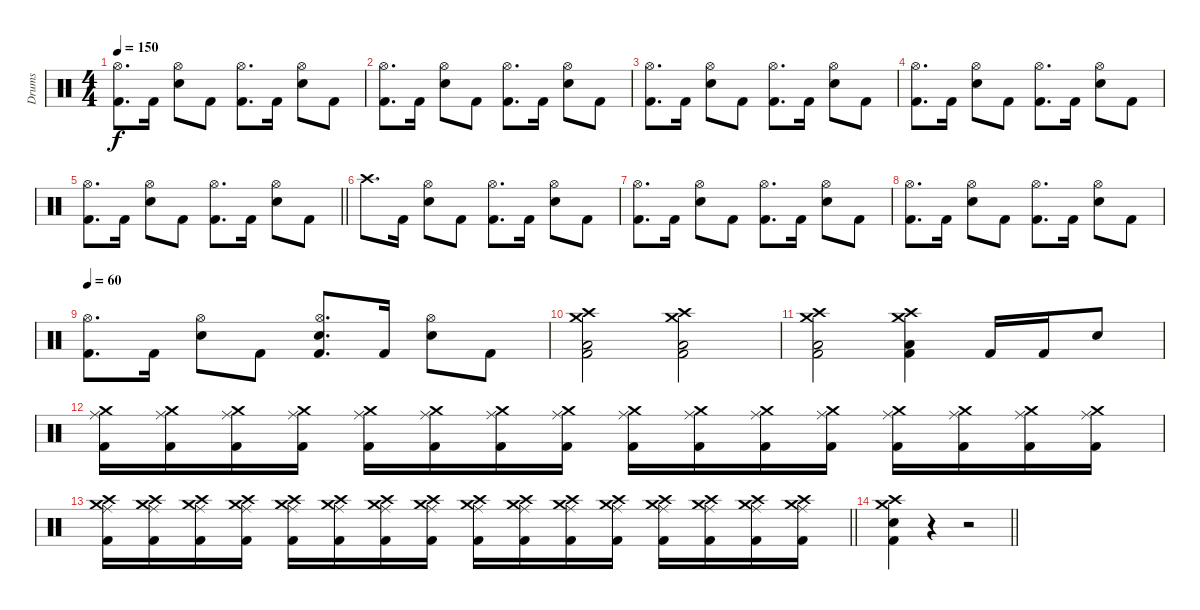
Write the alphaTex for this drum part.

\track ("Drums" "Drums") {instrument percussion}
\staff {score}
\articulation defaults
\ts (4 4)
\tempo 150
\clef neutral
\ks c
("Kick (hit) 2" "Hi-Hat (open)").8{d dy f} "Kick (hit) 2".16 ("Snare (hit) 2" "Hi-Hat (open)").8 "Kick (hit) 2".8 ("Kick (hit) 2" "Hi-Hat (open)").8{d} "Kick (hit) 2".16 ("Snare (hit) 2" "Hi-Hat (open)").8 "Kick (hit) 2".8 |
("Kick (hit) 2" "Hi-Hat (open)").8{d} "Kick (hit) 2".16 ("Snare (hit) 2" "Hi-Hat (open)").8 "Kick (hit) 2".8 ("Kick (hit) 2" "Hi-Hat (open)").8{d} "Kick (hit) 2".16 ("Snare (hit) 2" "Hi-Hat (open)").8 "Kick (hit) 2".8 |
("Kick (hit) 2" "Hi-Hat (open)").8{d} "Kick (hit) 2".16 ("Snare (hit) 2" "Hi-Hat (open)").8 "Kick (hit) 2".8 ("Kick (hit) 2" "Hi-Hat (open)").8{d} "Kick (hit) 2".16 ("Snare (hit) 2" "Hi-Hat (open)").8 "Kick (hit) 2".8 |
("Kick (hit) 2" "Hi-Hat (open)").8{d} "Kick (hit) 2".16 ("Snare (hit) 2" "Hi-Hat (open)").8 "Kick (hit) 2".8 ("Kick (hit) 2" "Hi-Hat (open)").8{d} "Kick (hit) 2".16 ("Snare (hit) 2" "Hi-Hat (open)").8 "Kick (hit) 2".8 |
\barLineRight lightlight
("Kick (hit) 2" "Hi-Hat (open)").8{d} "Kick (hit) 2".16 ("Snare (hit) 2" "Hi-Hat (open)").8 "Kick (hit) 2".8 ("Kick (hit) 2" "Hi-Hat (open)").8{d} "Kick (hit) 2".16 ("Snare (hit) 2" "Hi-Hat (open)").8 "Kick (hit) 2".8 |
"Crash high (hit)".8{d} "Kick (hit) 2".16 ("Snare (hit) 2" "Hi-Hat (open)").8 "Kick (hit) 2".8 ("Kick (hit) 2" "Hi-Hat (open)").8{d} "Kick (hit) 2".16 ("Snare (hit) 2" "Hi-Hat (open)").8 "Kick (hit) 2".8 |
("Kick (hit) 2" "Hi-Hat (open)").8{d} "Kick (hit) 2".16 ("Snare (hit) 2" "Hi-Hat (open)").8 "Kick (hit) 2".8 ("Kick (hit) 2" "Hi-Hat (open)").8{d} "Kick (hit) 2".16 ("Snare (hit) 2" "Hi-Hat (open)").8 "Kick (hit) 2".8 |
("Kick (hit) 2" "Hi-Hat (open)").8{d} "Kick (hit) 2".16 ("Snare (hit) 2" "Hi-Hat (open)").8 "Kick (hit) 2".8 ("Kick (hit) 2" "Hi-Hat (open)").8{d} "Kick (hit) 2".16 ("Snare (hit) 2" "Hi-Hat (open)").8 "Kick (hit) 2".8 |
\tempo 60
("Kick (hit) 2" "Hi-Hat (open)").8{d} "Kick (hit) 2".16 ("Snare (hit) 2" "Hi-Hat (open)").8 "Kick (hit) 2".8 ("Kick (hit) 2" "Hi-Hat (open)" "Snare (hit) 2").8{d} "Kick (hit) 2".16 ("Snare (hit) 2" "Hi-Hat (open)").8 "Kick (hit) 2".8 |
("Kick (hit) 2" "Low Tom (hit)" "Crash high (hit)" "Crash medium (hit)").2 ("Kick (hit) 2" "Low Tom (hit)" "Crash high (hit)" "Crash medium (hit)").2 |
("Kick (hit) 2" "Low Tom (hit)" "Crash high (hit)" "Crash medium (hit)").2 ("Kick (hit) 2" "Low Tom (hit)" "Crash high (hit)" "Crash medium (hit)").4 "Kick (hit) 2".16 "Kick (hit) 2".16 "Snare (hit) 2".8 |
("Kick (hit) 2" "Crash medium (hit)" "Ride (middle)").16 ("Kick (hit) 2" "Crash medium (hit)" "Ride (middle)").16 ("Kick (hit) 2" "Crash medium (hit)" "Ride (middle)").16 ("Kick (hit) 2" "Crash medium (hit)" "Ride (middle)").16 ("Kick (hit) 2" "Crash medium (hit)" "Ride (middle)").16 ("Kick (hit) 2" "Crash medium (hit)" "Ride (middle)").16 ("Kick (hit) 2" "Crash medium (hit)" "Ride (middle)").16 ("Kick (hit) 2" "Crash medium (hit)" "Ride (middle)").16 ("Kick (hit) 2" "Crash medium (hit)" "Ride (middle)").16 ("Kick (hit) 2" "Crash medium (hit)" "Ride (middle)").16 ("Kick (hit) 2" "Crash medium (hit)" "Ride (middle)").16 ("Kick (hit) 2" "Crash medium (hit)" "Ride (middle)").16 ("Kick (hit) 2" "Crash medium (hit)" "Ride (middle)").16 ("Kick (hit) 2" "Crash medium (hit)" "Ride (middle)").16 ("Kick (hit) 2" "Crash medium (hit)" "Ride (middle)").16 ("Kick (hit) 2" "Crash medium (hit)" "Ride (middle)").16 |
\barLineRight lightlight
("Kick (hit) 2" "Crash medium (hit)" "Ride (middle)" "Crash high (hit)").16 ("Kick (hit) 2" "Crash medium (hit)" "Ride (middle)" "Crash high (hit)").16 ("Kick (hit) 2" "Crash medium (hit)" "Ride (middle)" "Crash high (hit)").16 ("Kick (hit) 2" "Crash medium (hit)" "Ride (middle)" "Crash high (hit)").16 ("Kick (hit) 2" "Crash medium (hit)" "Ride (middle)" "Crash high (hit)").16 ("Kick (hit) 2" "Crash medium (hit)" "Ride (middle)" "Crash high (hit)").16 ("Kick (hit) 2" "Crash medium (hit)" "Ride (middle)" "Crash high (hit)").16 ("Kick (hit) 2" "Crash medium (hit)" "Ride (middle)" "Crash high (hit)").16 ("Kick (hit) 2" "Crash medium (hit)" "Ride (middle)" "Crash high (hit)").16 ("Kick (hit) 2" "Crash medium (hit)" "Ride (middle)" "Crash high (hit)").16 ("Kick (hit) 2" "Crash medium (hit)" "Ride (middle)" "Crash high (hit)").16 ("Kick (hit) 2" "Crash medium (hit)" "Ride (middle)" "Crash high (hit)").16 ("Kick (hit) 2" "Crash medium (hit)" "Ride (middle)" "Crash high (hit)").16 ("Kick (hit) 2" "Crash medium (hit)" "Ride (middle)" "Crash high (hit)").16 ("Kick (hit) 2" "Crash medium (hit)" "Ride (middle)" "Crash high (hit)").16 ("Kick (hit) 2" "Crash medium (hit)" "Ride (middle)" "Crash high (hit)").16 |
\barLineRight lightlight
("Kick (hit) 2" "Crash high (hit)" "Crash medium (hit)" "Snare (hit) 2").4 r.4 r.2
